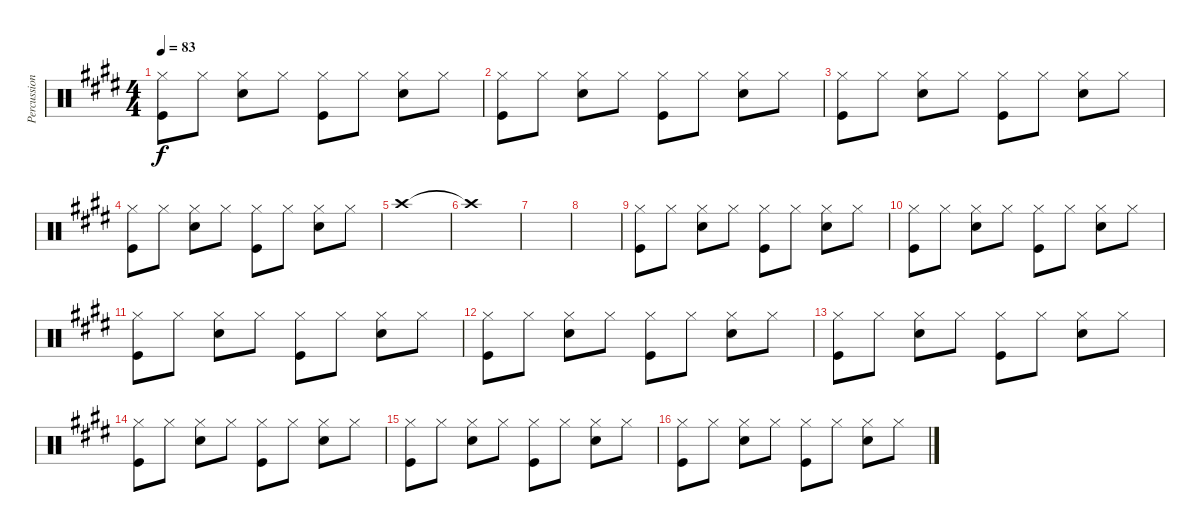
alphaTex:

\track ("Percussion" "Percussion") {instrument percussion}
\staff {score}
\articulation defaults
\ts (4 4)
\tempo 83
\clef neutral
\ks e
("Kick (hit)" "Hi-Hat (closed)").8{dy f} "Hi-Hat (closed)".8 ("Hi-Hat (closed)" "Snare (hit) 2").8 "Hi-Hat (closed)".8 ("Hi-Hat (closed)" "Kick (hit)").8 "Hi-Hat (closed)".8 ("Hi-Hat (closed)" "Snare (hit) 2").8 "Hi-Hat (closed)".8 |
("Kick (hit)" "Hi-Hat (closed)").8 "Hi-Hat (closed)".8 ("Hi-Hat (closed)" "Snare (hit) 2").8 "Hi-Hat (closed)".8 ("Hi-Hat (closed)" "Kick (hit)").8 "Hi-Hat (closed)".8 ("Hi-Hat (closed)" "Snare (hit) 2").8 "Hi-Hat (closed)".8 |
("Kick (hit)" "Hi-Hat (closed)").8 "Hi-Hat (closed)".8 ("Hi-Hat (closed)" "Snare (hit) 2").8 "Hi-Hat (closed)".8 ("Hi-Hat (closed)" "Kick (hit)").8 "Hi-Hat (closed)".8 ("Hi-Hat (closed)" "Snare (hit) 2").8 "Hi-Hat (closed)".8 |
("Kick (hit)" "Hi-Hat (closed)").8 "Hi-Hat (closed)".8 ("Hi-Hat (closed)" "Snare (hit) 2").8 "Hi-Hat (closed)".8 ("Hi-Hat (closed)" "Kick (hit)").8 "Hi-Hat (closed)".8 ("Hi-Hat (closed)" "Snare (hit) 2").8 "Hi-Hat (closed)".8 |
"Crash high (hit)".1 |
"Crash high (hit)"{t}.1 |
|
|
("Kick (hit)" "Hi-Hat (closed)").8 "Hi-Hat (closed)".8 ("Hi-Hat (closed)" "Snare (hit) 2").8 "Hi-Hat (closed)".8 ("Hi-Hat (closed)" "Kick (hit)").8 "Hi-Hat (closed)".8 ("Hi-Hat (closed)" "Snare (hit) 2").8 "Hi-Hat (closed)".8 |
("Kick (hit)" "Hi-Hat (closed)").8 "Hi-Hat (closed)".8 ("Hi-Hat (closed)" "Snare (hit) 2").8 "Hi-Hat (closed)".8 ("Hi-Hat (closed)" "Kick (hit)").8 "Hi-Hat (closed)".8 ("Hi-Hat (closed)" "Snare (hit) 2").8 "Hi-Hat (closed)".8 |
("Kick (hit)" "Hi-Hat (closed)").8 "Hi-Hat (closed)".8 ("Hi-Hat (closed)" "Snare (hit) 2").8 "Hi-Hat (closed)".8 ("Hi-Hat (closed)" "Kick (hit)").8 "Hi-Hat (closed)".8 ("Hi-Hat (closed)" "Snare (hit) 2").8 "Hi-Hat (closed)".8 |
("Kick (hit)" "Hi-Hat (closed)").8 "Hi-Hat (closed)".8 ("Hi-Hat (closed)" "Snare (hit) 2").8 "Hi-Hat (closed)".8 ("Hi-Hat (closed)" "Kick (hit)").8 "Hi-Hat (closed)".8 ("Hi-Hat (closed)" "Snare (hit) 2").8 "Hi-Hat (closed)".8 |
("Kick (hit)" "Hi-Hat (closed)").8 "Hi-Hat (closed)".8 ("Hi-Hat (closed)" "Snare (hit) 2").8 "Hi-Hat (closed)".8 ("Hi-Hat (closed)" "Kick (hit)").8 "Hi-Hat (closed)".8 ("Hi-Hat (closed)" "Snare (hit) 2").8 "Hi-Hat (closed)".8 |
("Kick (hit)" "Hi-Hat (closed)").8 "Hi-Hat (closed)".8 ("Hi-Hat (closed)" "Snare (hit) 2").8 "Hi-Hat (closed)".8 ("Hi-Hat (closed)" "Kick (hit)").8 "Hi-Hat (closed)".8 ("Hi-Hat (closed)" "Snare (hit) 2").8 "Hi-Hat (closed)".8 |
("Kick (hit)" "Hi-Hat (closed)").8 "Hi-Hat (closed)".8 ("Hi-Hat (closed)" "Snare (hit) 2").8 "Hi-Hat (closed)".8 ("Hi-Hat (closed)" "Kick (hit)").8 "Hi-Hat (closed)".8 ("Hi-Hat (closed)" "Snare (hit) 2").8 "Hi-Hat (closed)".8 |
("Kick (hit)" "Hi-Hat (closed)").8 "Hi-Hat (closed)".8 ("Hi-Hat (closed)" "Snare (hit) 2").8 "Hi-Hat (closed)".8 ("Hi-Hat (closed)" "Kick (hit)").8 "Hi-Hat (closed)".8 ("Hi-Hat (closed)" "Snare (hit) 2").8 "Hi-Hat (closed)".8
